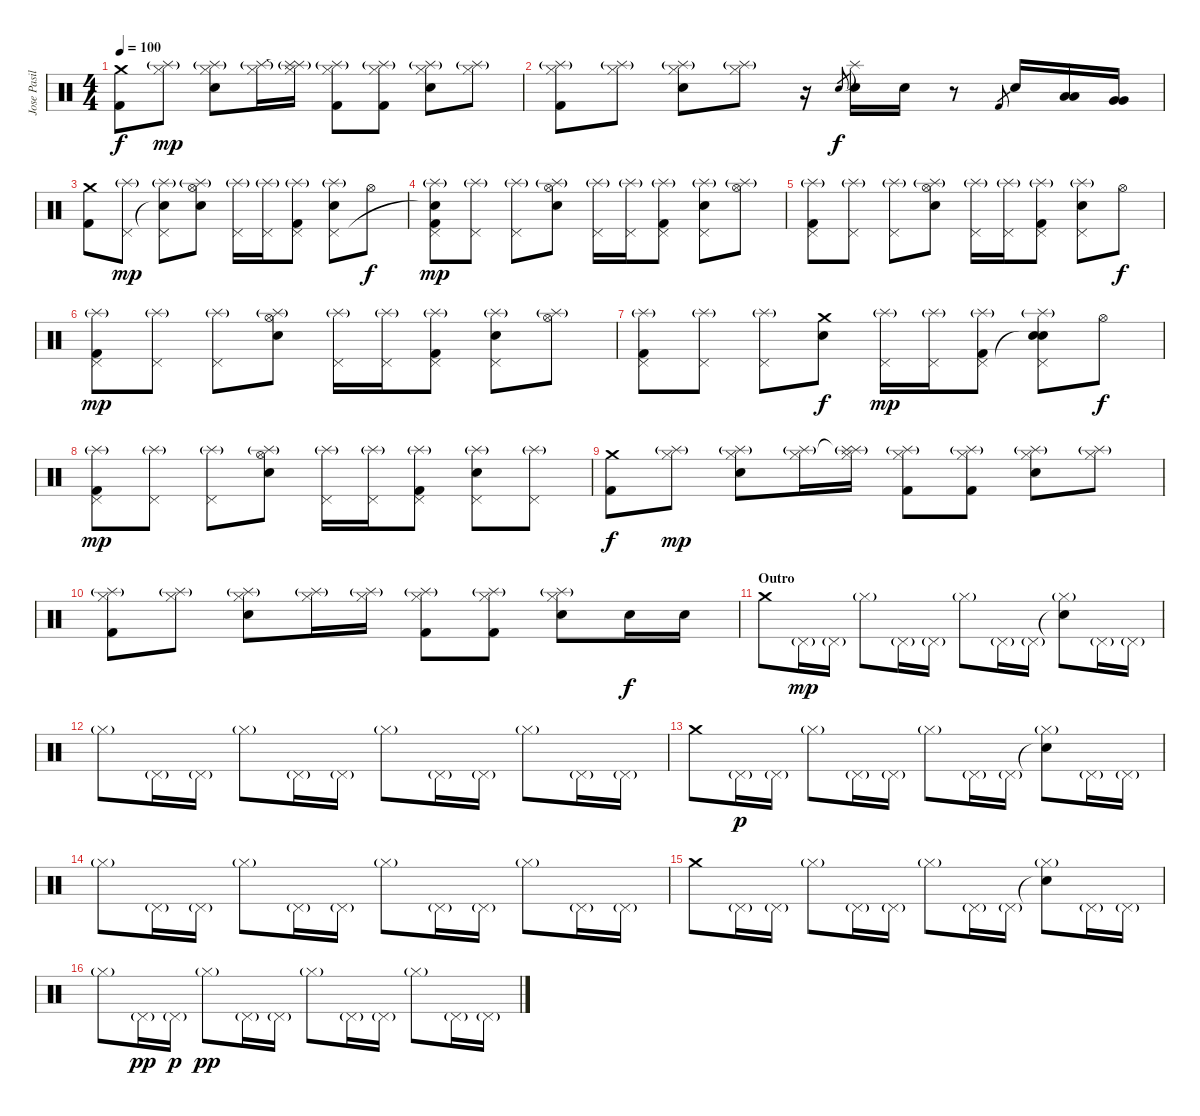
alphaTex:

\track ("Jose Pasillas III" "Jose Pasil") {instrument percussion}
\staff {score}
\articulation defaults
\ts (4 4)
\tempo 100
\clef neutral
\ks c
("Crash medium (hit)" "Kick (hit) 2").8{dy f} ("Splash (hit)"{g} "Hi-Hat (closed)").8{dy mp} ("Splash (hit)"{g} "Hi-Hat (closed)" "Electric Snare (hit)").8 ("Splash (hit)"{g} "Hi-Hat (closed)").16 ("Splash (hit)"{g} "Splash (hit)"{t} "Hi-Hat (closed)").16 ("Splash (hit)"{g} "Hi-Hat (closed)" "Kick (hit) 2").8 ("Splash (hit)"{g} "Hi-Hat (closed)" "Kick (hit) 2").8 ("Splash (hit)"{g} "Hi-Hat (closed)" "Electric Snare (hit)").8 ("Splash (hit)"{g} "Hi-Hat (closed)").8 |
("Splash (hit)"{g} "Hi-Hat (closed)" "Kick (hit) 2").8 ("Splash (hit)"{g} "Hi-Hat (closed)").8 ("Splash (hit)"{g} "Hi-Hat (closed)" "Electric Snare (hit)").8 ("Splash (hit)"{g} "Hi-Hat (closed)").8 r.16 "Electric Snare (hit)".8{gr dy f} ("Splash (hit)"{t} "Electric Snare (hit)").16 "Electric Snare (hit)".16 r.8 "Kick (hit) 2".8{gr} "Electric Snare (hit)".16 ("Low Tom (hit)" "Low Tom (hit)").16 ("Very Low Tom (hit)" "Very Low Tom (hit)").16 |
("Crash medium (hit)" "Kick (hit) 2").8 ("Splash (hit)"{g} "Pedal Hi-Hat (hit)").8{dy mp} ("Splash (hit)"{g} "Snare (hit)"{t} "Pedal Hi-Hat (hit)").8 ("Splash (hit)"{g} "Hi-Hat (open)" "Electric Snare (hit)").8 ("Splash (hit)"{g} "Pedal Hi-Hat (hit)").16 ("Splash (hit)"{g} "Pedal Hi-Hat (hit)").16 ("Splash (hit)"{g} "Pedal Hi-Hat (hit)" "Kick (hit) 2").8 ("Splash (hit)"{g} "Pedal Hi-Hat (hit)" "Electric Snare (hit)").8 "Hi-Hat (open)".8{dy f} |
("Splash (hit)"{g} "Snare (hit)"{t} "Pedal Hi-Hat (hit)" "Kick (hit) 2").8{dy mp} ("Splash (hit)"{g} "Pedal Hi-Hat (hit)").8 ("Splash (hit)"{g} "Pedal Hi-Hat (hit)").8 ("Splash (hit)"{g} "Hi-Hat (open)" "Electric Snare (hit)").8 ("Splash (hit)"{g} "Pedal Hi-Hat (hit)").16 ("Splash (hit)"{g} "Pedal Hi-Hat (hit)").16 ("Splash (hit)"{g} "Pedal Hi-Hat (hit)" "Kick (hit) 2").8 ("Splash (hit)"{g} "Pedal Hi-Hat (hit)" "Electric Snare (hit)").8 ("Splash (hit)"{g} "Hi-Hat (open)").8 |
("Splash (hit)"{g} "Pedal Hi-Hat (hit)" "Kick (hit) 2").8 ("Splash (hit)"{g} "Pedal Hi-Hat (hit)").8 ("Splash (hit)"{g} "Pedal Hi-Hat (hit)").8 ("Splash (hit)"{g} "Hi-Hat (open)" "Electric Snare (hit)").8 ("Splash (hit)"{g} "Pedal Hi-Hat (hit)").16 ("Splash (hit)"{g} "Pedal Hi-Hat (hit)").16 ("Splash (hit)"{g} "Pedal Hi-Hat (hit)" "Kick (hit) 2").8 ("Splash (hit)"{g} "Pedal Hi-Hat (hit)" "Electric Snare (hit)").8 "Hi-Hat (open)".8{dy f} |
("Splash (hit)"{g} "Pedal Hi-Hat (hit)" "Kick (hit) 2").8{dy mp} ("Splash (hit)"{g} "Pedal Hi-Hat (hit)").8 ("Splash (hit)"{g} "Pedal Hi-Hat (hit)").8 ("Splash (hit)"{g} "Hi-Hat (open)" "Electric Snare (hit)").8 ("Splash (hit)"{g} "Pedal Hi-Hat (hit)").16 ("Splash (hit)"{g} "Pedal Hi-Hat (hit)").16 ("Splash (hit)"{g} "Pedal Hi-Hat (hit)" "Kick (hit) 2").8 ("Splash (hit)"{g} "Pedal Hi-Hat (hit)" "Electric Snare (hit)").8 ("Splash (hit)"{g} "Hi-Hat (open)").8 |
("Splash (hit)"{g} "Pedal Hi-Hat (hit)" "Kick (hit) 2").8 ("Splash (hit)"{g} "Pedal Hi-Hat (hit)").8 ("Splash (hit)"{g} "Pedal Hi-Hat (hit)").8 ("Crash medium (hit)" "Electric Snare (hit)").8{dy f} ("Splash (hit)"{g} "Pedal Hi-Hat (hit)").16{dy mp} ("Splash (hit)"{g} "Pedal Hi-Hat (hit)").16 ("Splash (hit)"{g} "Pedal Hi-Hat (hit)" "Kick (hit) 2").8 ("Splash (hit)"{g} "Snare (hit)"{t} "Pedal Hi-Hat (hit)" "Electric Snare (hit)").8 "Hi-Hat (open)".8{dy f} |
("Splash (hit)"{g} "Pedal Hi-Hat (hit)" "Kick (hit) 2").8{dy mp} ("Splash (hit)"{g} "Pedal Hi-Hat (hit)").8 ("Splash (hit)"{g} "Pedal Hi-Hat (hit)").8 ("Splash (hit)"{g} "Hi-Hat (open)" "Electric Snare (hit)").8 ("Splash (hit)"{g} "Pedal Hi-Hat (hit)").16 ("Splash (hit)"{g} "Pedal Hi-Hat (hit)").16 ("Splash (hit)"{g} "Pedal Hi-Hat (hit)" "Kick (hit) 2").8 ("Splash (hit)"{g} "Pedal Hi-Hat (hit)" "Electric Snare (hit)").8 ("Splash (hit)"{g} "Pedal Hi-Hat (hit)").8 |
("Crash medium (hit)" "Kick (hit) 2").8{dy f} ("Splash (hit)"{g} "Hi-Hat (closed)").8{dy mp} ("Splash (hit)"{g} "Hi-Hat (closed)" "Electric Snare (hit)").8 ("Splash (hit)"{g} "Hi-Hat (closed)").16 ("Splash (hit)"{g} "Splash (hit)"{t} "Hi-Hat (closed)").16 ("Splash (hit)"{g} "Hi-Hat (closed)" "Kick (hit) 2").8 ("Splash (hit)"{g} "Hi-Hat (closed)" "Kick (hit) 2").8 ("Splash (hit)"{g} "Hi-Hat (closed)" "Electric Snare (hit)").8 ("Splash (hit)"{g} "Hi-Hat (closed)").8 |
("Splash (hit)"{g} "Hi-Hat (closed)" "Kick (hit) 2").8 ("Splash (hit)"{g} "Hi-Hat (closed)").8 ("Splash (hit)"{g} "Hi-Hat (closed)" "Electric Snare (hit)").8 ("Splash (hit)"{g} "Hi-Hat (closed)").16 ("Splash (hit)"{g} "Hi-Hat (closed)").16 ("Splash (hit)"{g} "Hi-Hat (closed)" "Kick (hit) 2").8 ("Splash (hit)"{g} "Hi-Hat (closed)" "Kick (hit) 2").8 ("Splash (hit)"{g} "Hi-Hat (closed)" "Electric Snare (hit)").8 "Electric Snare (hit)".16{dy f} "Electric Snare (hit)".16 |
\section ("" "Outro")
"Crash medium (hit)".8 "Pedal Hi-Hat (hit)"{g}.16{dy mp} "Pedal Hi-Hat (hit)"{g}.16 "Hi-Hat (closed)"{g}.8 "Pedal Hi-Hat (hit)"{g}.16 "Pedal Hi-Hat (hit)"{g}.16 "Hi-Hat (closed)"{g}.8 "Pedal Hi-Hat (hit)"{g}.16 "Pedal Hi-Hat (hit)"{g}.16 ("Snare (hit)"{t} "Hi-Hat (closed)"{g}).8 "Pedal Hi-Hat (hit)"{g}.16 "Pedal Hi-Hat (hit)"{g}.16 |
"Hi-Hat (closed)"{g}.8 "Pedal Hi-Hat (hit)"{g}.16 "Pedal Hi-Hat (hit)"{g}.16 "Hi-Hat (closed)"{g}.8 "Pedal Hi-Hat (hit)"{g}.16 "Pedal Hi-Hat (hit)"{g}.16 "Hi-Hat (closed)"{g}.8 "Pedal Hi-Hat (hit)"{g}.16 "Pedal Hi-Hat (hit)"{g}.16 "Hi-Hat (closed)"{g}.8 "Pedal Hi-Hat (hit)"{g}.16 "Pedal Hi-Hat (hit)"{g}.16 |
"Crash medium (hit)".8 "Pedal Hi-Hat (hit)"{g}.16{dy p} "Pedal Hi-Hat (hit)"{g}.16 "Hi-Hat (closed)"{g}.8 "Pedal Hi-Hat (hit)"{g}.16 "Pedal Hi-Hat (hit)"{g}.16 "Hi-Hat (closed)"{g}.8 "Pedal Hi-Hat (hit)"{g}.16 "Pedal Hi-Hat (hit)"{g}.16 ("Snare (hit)"{t} "Hi-Hat (closed)"{g}).8 "Pedal Hi-Hat (hit)"{g}.16 "Pedal Hi-Hat (hit)"{g}.16 |
"Hi-Hat (closed)"{g}.8 "Pedal Hi-Hat (hit)"{g}.16 "Pedal Hi-Hat (hit)"{g}.16 "Hi-Hat (closed)"{g}.8 "Pedal Hi-Hat (hit)"{g}.16 "Pedal Hi-Hat (hit)"{g}.16 "Hi-Hat (closed)"{g}.8 "Pedal Hi-Hat (hit)"{g}.16 "Pedal Hi-Hat (hit)"{g}.16 "Hi-Hat (closed)"{g}.8 "Pedal Hi-Hat (hit)"{g}.16 "Pedal Hi-Hat (hit)"{g}.16 |
"Crash medium (hit)".8 "Pedal Hi-Hat (hit)"{g}.16 "Pedal Hi-Hat (hit)"{g}.16 "Hi-Hat (closed)"{g}.8 "Pedal Hi-Hat (hit)"{g}.16 "Pedal Hi-Hat (hit)"{g}.16 "Hi-Hat (closed)"{g}.8 "Pedal Hi-Hat (hit)"{g}.16 "Pedal Hi-Hat (hit)"{g}.16 ("Snare (hit)"{t} "Hi-Hat (closed)"{g}).8 "Pedal Hi-Hat (hit)"{g}.16 "Pedal Hi-Hat (hit)"{g}.16 |
"Hi-Hat (closed)"{g}.8 "Pedal Hi-Hat (hit)"{g}.16{dy pp} "Pedal Hi-Hat (hit)"{g}.16{dy p} "Hi-Hat (closed)"{g}.8{dy pp} "Pedal Hi-Hat (hit)"{g}.16 "Pedal Hi-Hat (hit)"{g}.16 "Hi-Hat (closed)"{g}.8 "Pedal Hi-Hat (hit)"{g}.16 "Pedal Hi-Hat (hit)"{g}.16 "Hi-Hat (closed)"{g}.8 "Pedal Hi-Hat (hit)"{g}.16 "Pedal Hi-Hat (hit)"{g}.16
